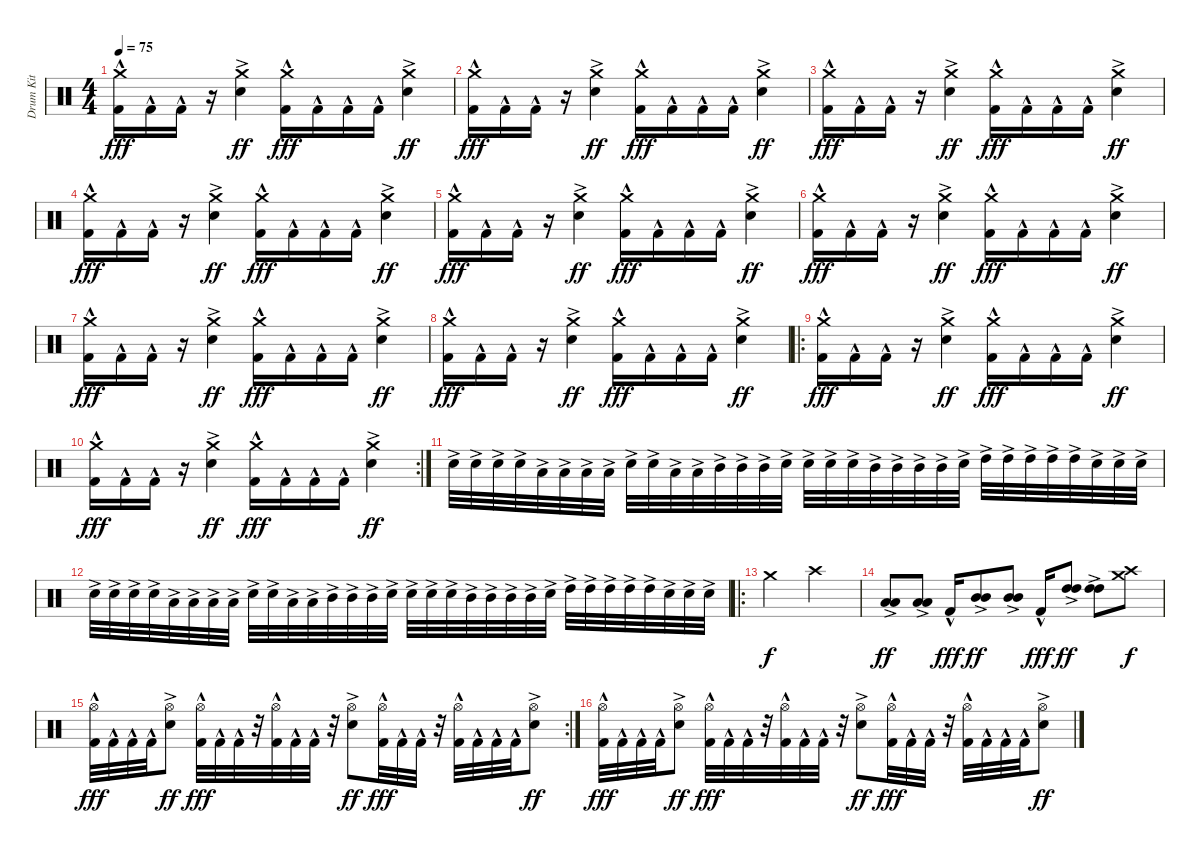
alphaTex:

\track ("Drum Kit" "Drum Kit") {instrument percussion}
\staff {score}
\articulation defaults
\ts (4 4)
\tempo 75
\clef neutral
\ks c
("Crash medium (hit)" "Kick (hit) 2"{hac}).16{dy fff} "Kick (hit) 2"{hac}.16 "Kick (hit) 2"{hac}.16 r.16 ("Crash medium (hit)" "Snare (hit) 2"{ac}).4{dy ff} ("Crash medium (hit)" "Kick (hit) 2"{hac}).16{dy fff} "Kick (hit) 2"{hac}.16 "Kick (hit) 2"{hac}.16 "Kick (hit) 2"{hac}.16 ("Crash medium (hit)" "Snare (hit) 2"{ac}).4{dy ff} |
("Crash medium (hit)" "Kick (hit) 2"{hac}).16{dy fff} "Kick (hit) 2"{hac}.16 "Kick (hit) 2"{hac}.16 r.16 ("Crash medium (hit)" "Snare (hit) 2"{ac}).4{dy ff} ("Crash medium (hit)" "Kick (hit) 2"{hac}).16{dy fff} "Kick (hit) 2"{hac}.16 "Kick (hit) 2"{hac}.16 "Kick (hit) 2"{hac}.16 ("Crash medium (hit)" "Snare (hit) 2"{ac}).4{dy ff} |
("Crash medium (hit)" "Kick (hit) 2"{hac}).16{dy fff} "Kick (hit) 2"{hac}.16 "Kick (hit) 2"{hac}.16 r.16 ("Crash medium (hit)" "Snare (hit) 2"{ac}).4{dy ff} ("Crash medium (hit)" "Kick (hit) 2"{hac}).16{dy fff} "Kick (hit) 2"{hac}.16 "Kick (hit) 2"{hac}.16 "Kick (hit) 2"{hac}.16 ("Crash medium (hit)" "Snare (hit) 2"{ac}).4{dy ff} |
("Crash medium (hit)" "Kick (hit) 2"{hac}).16{dy fff} "Kick (hit) 2"{hac}.16 "Kick (hit) 2"{hac}.16 r.16 ("Crash medium (hit)" "Snare (hit) 2"{ac}).4{dy ff} ("Crash medium (hit)" "Kick (hit) 2"{hac}).16{dy fff} "Kick (hit) 2"{hac}.16 "Kick (hit) 2"{hac}.16 "Kick (hit) 2"{hac}.16 ("Crash medium (hit)" "Snare (hit) 2"{ac}).4{dy ff} |
("Crash medium (hit)" "Kick (hit) 2"{hac}).16{dy fff} "Kick (hit) 2"{hac}.16 "Kick (hit) 2"{hac}.16 r.16 ("Crash medium (hit)" "Snare (hit) 2"{ac}).4{dy ff} ("Crash medium (hit)" "Kick (hit) 2"{hac}).16{dy fff} "Kick (hit) 2"{hac}.16 "Kick (hit) 2"{hac}.16 "Kick (hit) 2"{hac}.16 ("Crash medium (hit)" "Snare (hit) 2"{ac}).4{dy ff} |
("Crash medium (hit)" "Kick (hit) 2"{hac}).16{dy fff} "Kick (hit) 2"{hac}.16 "Kick (hit) 2"{hac}.16 r.16 ("Crash medium (hit)" "Snare (hit) 2"{ac}).4{dy ff} ("Crash medium (hit)" "Kick (hit) 2"{hac}).16{dy fff} "Kick (hit) 2"{hac}.16 "Kick (hit) 2"{hac}.16 "Kick (hit) 2"{hac}.16 ("Crash medium (hit)" "Snare (hit) 2"{ac}).4{dy ff} |
("Crash medium (hit)" "Kick (hit) 2"{hac}).16{dy fff} "Kick (hit) 2"{hac}.16 "Kick (hit) 2"{hac}.16 r.16 ("Crash medium (hit)" "Snare (hit) 2"{ac}).4{dy ff} ("Crash medium (hit)" "Kick (hit) 2"{hac}).16{dy fff} "Kick (hit) 2"{hac}.16 "Kick (hit) 2"{hac}.16 "Kick (hit) 2"{hac}.16 ("Crash medium (hit)" "Snare (hit) 2"{ac}).4{dy ff} |
("Crash medium (hit)" "Kick (hit) 2"{hac}).16{dy fff} "Kick (hit) 2"{hac}.16 "Kick (hit) 2"{hac}.16 r.16 ("Crash medium (hit)" "Snare (hit) 2"{ac}).4{dy ff} ("Crash medium (hit)" "Kick (hit) 2"{hac}).16{dy fff} "Kick (hit) 2"{hac}.16 "Kick (hit) 2"{hac}.16 "Kick (hit) 2"{hac}.16 ("Crash medium (hit)" "Snare (hit) 2"{ac}).4{dy ff} |
\ro
("Crash medium (hit)" "Kick (hit) 2"{hac}).16{dy fff} "Kick (hit) 2"{hac}.16 "Kick (hit) 2"{hac}.16 r.16 ("Crash medium (hit)" "Snare (hit) 2"{ac}).4{dy ff} ("Crash medium (hit)" "Kick (hit) 2"{hac}).16{dy fff} "Kick (hit) 2"{hac}.16 "Kick (hit) 2"{hac}.16 "Kick (hit) 2"{hac}.16 ("Crash medium (hit)" "Snare (hit) 2"{ac}).4{dy ff} |
\rc 2
("Crash medium (hit)" "Kick (hit) 2"{hac}).16{dy fff} "Kick (hit) 2"{hac}.16 "Kick (hit) 2"{hac}.16 r.16 ("Crash medium (hit)" "Snare (hit) 2"{ac}).4{dy ff} ("Crash medium (hit)" "Kick (hit) 2"{hac}).16{dy fff} "Kick (hit) 2"{hac}.16 "Kick (hit) 2"{hac}.16 "Kick (hit) 2"{hac}.16 ("Crash medium (hit)" "Snare (hit) 2"{ac}).4{dy ff} |
"Snare (hit) 2"{ac}.32 "Snare (hit) 2"{ac}.32 "Snare (hit) 2"{ac}.32 "Snare (hit) 2"{ac}.32 "Low Tom (hit)"{ac}.32 "Low Tom (hit)"{ac}.32 "Low Tom (hit)"{ac}.32 "Low Tom (hit)"{ac}.32 "Snare (hit) 2"{ac}.32 "Snare (hit) 2"{ac}.32 "Low Tom (hit)"{ac}.32 "Low Tom (hit)"{ac}.32 "Mid Tom (hit)"{ac}.32 "Mid Tom (hit)"{ac}.32 "Mid Tom (hit)"{ac}.32 "Snare (hit) 2"{ac}.32 "Snare (hit) 2"{ac}.32 "Snare (hit) 2"{ac}.32 "Snare (hit) 2"{ac}.32 "Mid Tom (hit)"{ac}.32 "Mid Tom (hit)"{ac}.32 "Mid Tom (hit)"{ac}.32 "Mid Tom (hit)"{ac}.32 "Snare (hit) 2"{ac}.32 "High Tom (hit)"{ac}.32 "High Tom (hit)"{ac}.32 "High Tom (hit)"{ac}.32 "High Tom (hit)"{ac}.32 "High Tom (hit)"{ac}.32 "Snare (hit) 2"{ac}.32 "Snare (hit) 2"{ac}.32 "Snare (hit) 2"{ac}.32 |
"Snare (hit) 2"{ac}.32 "Snare (hit) 2"{ac}.32 "Snare (hit) 2"{ac}.32 "Snare (hit) 2"{ac}.32 "Low Tom (hit)"{ac}.32 "Low Tom (hit)"{ac}.32 "Low Tom (hit)"{ac}.32 "Low Tom (hit)"{ac}.32 "Snare (hit) 2"{ac}.32 "Snare (hit) 2"{ac}.32 "Low Tom (hit)"{ac}.32 "Low Tom (hit)"{ac}.32 "Mid Tom (hit)"{ac}.32 "Mid Tom (hit)"{ac}.32 "Mid Tom (hit)"{ac}.32 "Snare (hit) 2"{ac}.32 "Snare (hit) 2"{ac}.32 "Snare (hit) 2"{ac}.32 "Snare (hit) 2"{ac}.32 "Mid Tom (hit)"{ac}.32 "Mid Tom (hit)"{ac}.32 "Mid Tom (hit)"{ac}.32 "Mid Tom (hit)"{ac}.32 "Snare (hit) 2"{ac}.32 "High Tom (hit)"{ac}.32 "High Tom (hit)"{ac}.32 "High Tom (hit)"{ac}.32 "High Tom (hit)"{ac}.32 "High Tom (hit)"{ac}.32 "Snare (hit) 2"{ac}.32 "Snare (hit) 2"{ac}.32 "Snare (hit) 2"{ac}.32 |
\ro "Crash medium (hit)".2{dy f} "Crash high (hit)".2
|
("Low Tom (hit)"{ac} "Low Tom (hit)"{ac}).8{dy ff} ("Low Tom (hit)"{ac} "Low Tom (hit)"{ac}).8 "Kick (hit) 2"{hac}.16{dy fff} ("Mid Tom (hit)"{ac} "Mid Tom (hit)"{ac}).8{dy ff} ("Mid Tom (hit)"{ac} "Mid Tom (hit)"{ac}).8 "Kick (hit) 2"{hac}.16{dy fff} ("High Tom (hit)"{ac} "High Tom (hit)"{ac}).8{dy ff} ("High Tom (hit)"{ac} "High Tom (hit)"{ac}).8 ("Crash medium (hit)" "Crash high (hit)").8{dy f} |
\rc 2
("Hi-Hat (open)" "Kick (hit) 2"{hac}).32{dy fff} "Kick (hit) 2"{hac}.32 "Kick (hit) 2"{hac}.32 "Kick (hit) 2"{hac}.32 ("Hi-Hat (open)" "Snare (hit) 2"{ac}).8{dy ff} ("Hi-Hat (open)" "Kick (hit) 2"{hac}).32{dy fff} "Kick (hit) 2"{hac}.32 "Kick (hit) 2"{hac}.32 r.32 ("Hi-Hat (open)" "Kick (hit) 2"{hac}).32 "Kick (hit) 2"{hac}.32 "Kick (hit) 2"{hac}.32 r.32 ("Hi-Hat (open)" "Snare (hit) 2"{ac}).8{dy ff} ("Hi-Hat (open)" "Kick (hit) 2"{hac}).32{dy fff} "Kick (hit) 2"{hac}.32 "Kick (hit) 2"{hac}.32 r.32 ("Hi-Hat (open)" "Kick (hit) 2"{hac}).32 "Kick (hit) 2"{hac}.32 "Kick (hit) 2"{hac}.32 "Kick (hit) 2"{hac}.32 ("Hi-Hat (open)" "Snare (hit) 2"{ac}).8{dy ff} |
("Hi-Hat (open)" "Kick (hit) 2"{hac}).32{dy fff} "Kick (hit) 2"{hac}.32 "Kick (hit) 2"{hac}.32 "Kick (hit) 2"{hac}.32 ("Hi-Hat (open)" "Snare (hit) 2"{ac}).8{dy ff} ("Hi-Hat (open)" "Kick (hit) 2"{hac}).32{dy fff} "Kick (hit) 2"{hac}.32 "Kick (hit) 2"{hac}.32 r.32 ("Hi-Hat (open)" "Kick (hit) 2"{hac}).32 "Kick (hit) 2"{hac}.32 "Kick (hit) 2"{hac}.32 r.32 ("Hi-Hat (open)" "Snare (hit) 2"{ac}).8{dy ff} ("Hi-Hat (open)" "Kick (hit) 2"{hac}).32{dy fff} "Kick (hit) 2"{hac}.32 "Kick (hit) 2"{hac}.32 r.32 ("Hi-Hat (open)" "Kick (hit) 2"{hac}).32 "Kick (hit) 2"{hac}.32 "Kick (hit) 2"{hac}.32 "Kick (hit) 2"{hac}.32 ("Hi-Hat (open)" "Snare (hit) 2"{ac}).8{dy ff}
